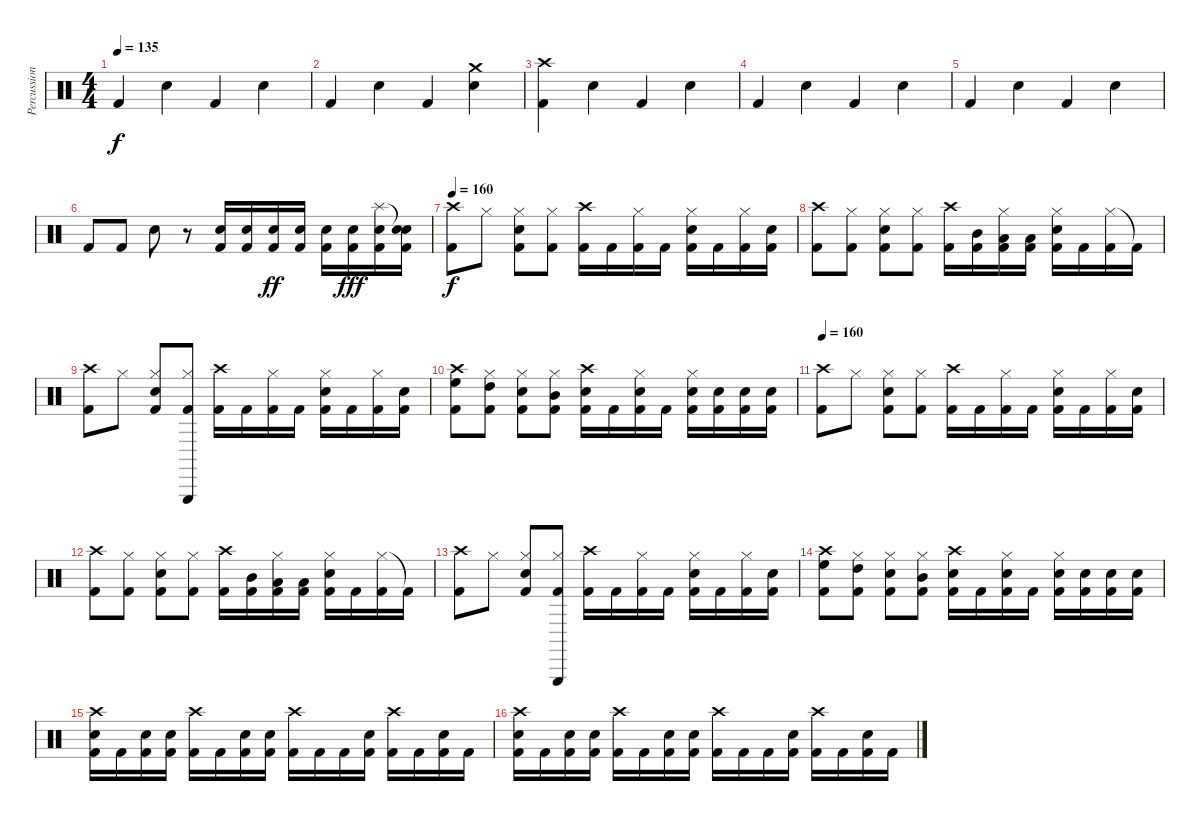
\track ("Percussion" "Percussion") {instrument percussion}
\staff {score}
\articulation defaults
\ts (4 4)
\tempo 135
\clef neutral
\ks c "Kick (hit) 2".4{dy f} "Electric Snare (hit)".4 "Kick (hit) 2".4 "Electric Snare (hit)".4
|
"Kick (hit) 2".4 "Electric Snare (hit)".4 "Kick (hit) 2".4 ("Crash medium (hit)" "Electric Snare (hit)").4 |
("Crash high (hit)" "Kick (hit) 2").4 "Electric Snare (hit)".4 "Kick (hit) 2".4 "Electric Snare (hit)".4 |
"Kick (hit) 2".4 "Electric Snare (hit)".4 "Kick (hit) 2".4 "Electric Snare (hit)".4 |
"Kick (hit) 2".4 "Electric Snare (hit)".4 "Kick (hit) 2".4 "Electric Snare (hit)".4 |
"Kick (hit) 2".8 "Kick (hit) 2".8 "Electric Snare (hit)".8 r.8 ("Electric Snare (hit)" "Kick (hit) 2").16 ("Electric Snare (hit)" "Kick (hit) 2").16 ("Electric Snare (hit)" "Kick (hit) 2").16{dy ff} ("Electric Snare (hit)" "Kick (hit) 2").16 ("Electric Snare (hit)" "Kick (hit) 2").16 ("Electric Snare (hit)" "Kick (hit) 2").16{dy fff} ("Splash (hit)" "Electric Snare (hit)" "Kick (hit) 2").16 ("Snare (hit)"{t} "Electric Snare (hit)" "Kick (hit) 2").16 |
\tempo 160
("Crash high (hit)" "Kick (hit) 2").8{dy f} "Hi-Hat (closed)".8 ("Hi-Hat (closed)" "Electric Snare (hit)" "Kick (hit) 2").8 ("Hi-Hat (closed)" "Kick (hit) 2").8 ("Crash high (hit)" "Kick (hit) 2").16 "Kick (hit) 2".16 ("Hi-Hat (closed)" "Kick (hit) 2").16 "Kick (hit) 2".16 ("Hi-Hat (closed)" "Electric Snare (hit)" "Kick (hit) 2").16 "Kick (hit) 2".16 ("Hi-Hat (closed)" "Kick (hit) 2").16 ("Electric Snare (hit)" "Kick (hit) 2").16 |
("Crash high (hit)" "Kick (hit) 2").8 ("Hi-Hat (closed)" "Kick (hit) 2").8 ("Hi-Hat (closed)" "Electric Snare (hit)" "Kick (hit) 2").8 ("Hi-Hat (closed)" "Kick (hit) 2").8 ("Crash high (hit)" "Kick (hit) 2").16 ("Mid Tom (hit)" "Kick (hit) 2").16 ("Hi-Hat (closed)" "Low Tom (hit)" "Kick (hit) 2").16 ("Low Tom (hit)" "Kick (hit) 2").16 ("Hi-Hat (closed)" "Electric Snare (hit)" "Kick (hit) 2").16 "Kick (hit) 2".16 ("Hi-Hat (closed)" "Kick (hit) 2").16 "Kick (hit) 2"{t}.16 |
("Crash high (hit)" "Kick (hit) 2").8 "Hi-Hat (closed)".8 ("Hi-Hat (closed)" "Electric Snare (hit)" "Kick (hit) 2").8 ("Hi-Hat (closed)" "Triangle (hit)" "Kick (hit) 2").8 ("Crash high (hit)" "Kick (hit) 2").16 "Kick (hit) 2".16 ("Hi-Hat (closed)" "Kick (hit) 2").16 "Kick (hit) 2".16 ("Hi-Hat (closed)" "Electric Snare (hit)" "Kick (hit) 2").16 "Kick (hit) 2".16 ("Hi-Hat (closed)" "Kick (hit) 2").16 ("Electric Snare (hit)" "Kick (hit) 2").16 |
("Crash high (hit)" "High Floor Tom (hit)" "Kick (hit) 2").8 ("Hi-Hat (closed)" "High Tom (hit)" "Kick (hit) 2").8 ("Hi-Hat (closed)" "Electric Snare (hit)" "Kick (hit) 2").8 ("Hi-Hat (closed)" "Mid Tom (hit)" "Kick (hit) 2").8 ("Crash high (hit)" "Electric Snare (hit)" "Kick (hit) 2").16 "Kick (hit) 2".16 ("Hi-Hat (closed)" "Electric Snare (hit)" "Kick (hit) 2").16 "Kick (hit) 2".16 ("Hi-Hat (closed)" "Electric Snare (hit)" "Kick (hit) 2").16 ("Electric Snare (hit)" "Kick (hit) 2").16 ("Electric Snare (hit)" "Kick (hit) 2").16 ("Electric Snare (hit)" "Kick (hit) 2").16 |
\tempo 160
("Crash high (hit)" "Kick (hit) 2").8 "Hi-Hat (closed)".8 ("Hi-Hat (closed)" "Electric Snare (hit)" "Kick (hit) 2").8 ("Hi-Hat (closed)" "Kick (hit) 2").8 ("Crash high (hit)" "Kick (hit) 2").16 "Kick (hit) 2".16 ("Hi-Hat (closed)" "Kick (hit) 2").16 "Kick (hit) 2".16 ("Hi-Hat (closed)" "Electric Snare (hit)" "Kick (hit) 2").16 "Kick (hit) 2".16 ("Hi-Hat (closed)" "Kick (hit) 2").16 ("Electric Snare (hit)" "Kick (hit) 2").16 |
("Crash high (hit)" "Kick (hit) 2").8 ("Hi-Hat (closed)" "Kick (hit) 2").8 ("Hi-Hat (closed)" "Electric Snare (hit)" "Kick (hit) 2").8 ("Hi-Hat (closed)" "Kick (hit) 2").8 ("Crash high (hit)" "Kick (hit) 2").16 ("Mid Tom (hit)" "Kick (hit) 2").16 ("Hi-Hat (closed)" "Low Tom (hit)" "Kick (hit) 2").16 ("Low Tom (hit)" "Kick (hit) 2").16 ("Hi-Hat (closed)" "Electric Snare (hit)" "Kick (hit) 2").16 "Kick (hit) 2".16 ("Hi-Hat (closed)" "Kick (hit) 2").16 "Kick (hit) 2"{t}.16 |
("Crash high (hit)" "Kick (hit) 2").8 "Hi-Hat (closed)".8 ("Hi-Hat (closed)" "Electric Snare (hit)" "Kick (hit) 2").8 ("Hi-Hat (closed)" "Triangle (hit)" "Kick (hit) 2").8 ("Crash high (hit)" "Kick (hit) 2").16 "Kick (hit) 2".16 ("Hi-Hat (closed)" "Kick (hit) 2").16 "Kick (hit) 2".16 ("Hi-Hat (closed)" "Electric Snare (hit)" "Kick (hit) 2").16 "Kick (hit) 2".16 ("Hi-Hat (closed)" "Kick (hit) 2").16 ("Electric Snare (hit)" "Kick (hit) 2").16 |
("Crash high (hit)" "High Floor Tom (hit)" "Kick (hit) 2").8 ("Hi-Hat (closed)" "High Tom (hit)" "Kick (hit) 2").8 ("Hi-Hat (closed)" "Electric Snare (hit)" "Kick (hit) 2").8 ("Hi-Hat (closed)" "Mid Tom (hit)" "Kick (hit) 2").8 ("Crash high (hit)" "Electric Snare (hit)" "Kick (hit) 2").16 "Kick (hit) 2".16 ("Hi-Hat (closed)" "Electric Snare (hit)" "Kick (hit) 2").16 "Kick (hit) 2".16 ("Hi-Hat (closed)" "Electric Snare (hit)" "Kick (hit) 2").16 ("Electric Snare (hit)" "Kick (hit) 2").16 ("Electric Snare (hit)" "Kick (hit) 2").16 ("Electric Snare (hit)" "Kick (hit) 2").16 |
("Crash high (hit)" "Electric Snare (hit)" "Kick (hit) 2").16 "Kick (hit) 2".16 ("Electric Snare (hit)" "Kick (hit) 2").16 ("Electric Snare (hit)" "Kick (hit) 2").16 ("Crash high (hit)" "Kick (hit) 2").16 "Kick (hit) 2".16 ("Electric Snare (hit)" "Kick (hit) 2").16 ("Electric Snare (hit)" "Kick (hit) 2").16 ("Crash high (hit)" "Kick (hit) 2").16 "Kick (hit) 2".16 "Kick (hit) 2".16 ("Electric Snare (hit)" "Kick (hit) 2").16 ("Crash high (hit)" "Kick (hit) 2").16 "Kick (hit) 2".16 ("Electric Snare (hit)" "Kick (hit) 2").16 "Kick (hit) 2".16 |
("Crash high (hit)" "Electric Snare (hit)" "Kick (hit) 2").16 "Kick (hit) 2".16 ("Electric Snare (hit)" "Kick (hit) 2").16 ("Electric Snare (hit)" "Kick (hit) 2").16 ("Crash high (hit)" "Kick (hit) 2").16 "Kick (hit) 2".16 ("Electric Snare (hit)" "Kick (hit) 2").16 ("Electric Snare (hit)" "Kick (hit) 2").16 ("Crash high (hit)" "Kick (hit) 2").16 "Kick (hit) 2".16 "Kick (hit) 2".16 ("Electric Snare (hit)" "Kick (hit) 2").16 ("Crash high (hit)" "Kick (hit) 2").16 "Kick (hit) 2".16 ("Electric Snare (hit)" "Kick (hit) 2").16 "Kick (hit) 2".16
